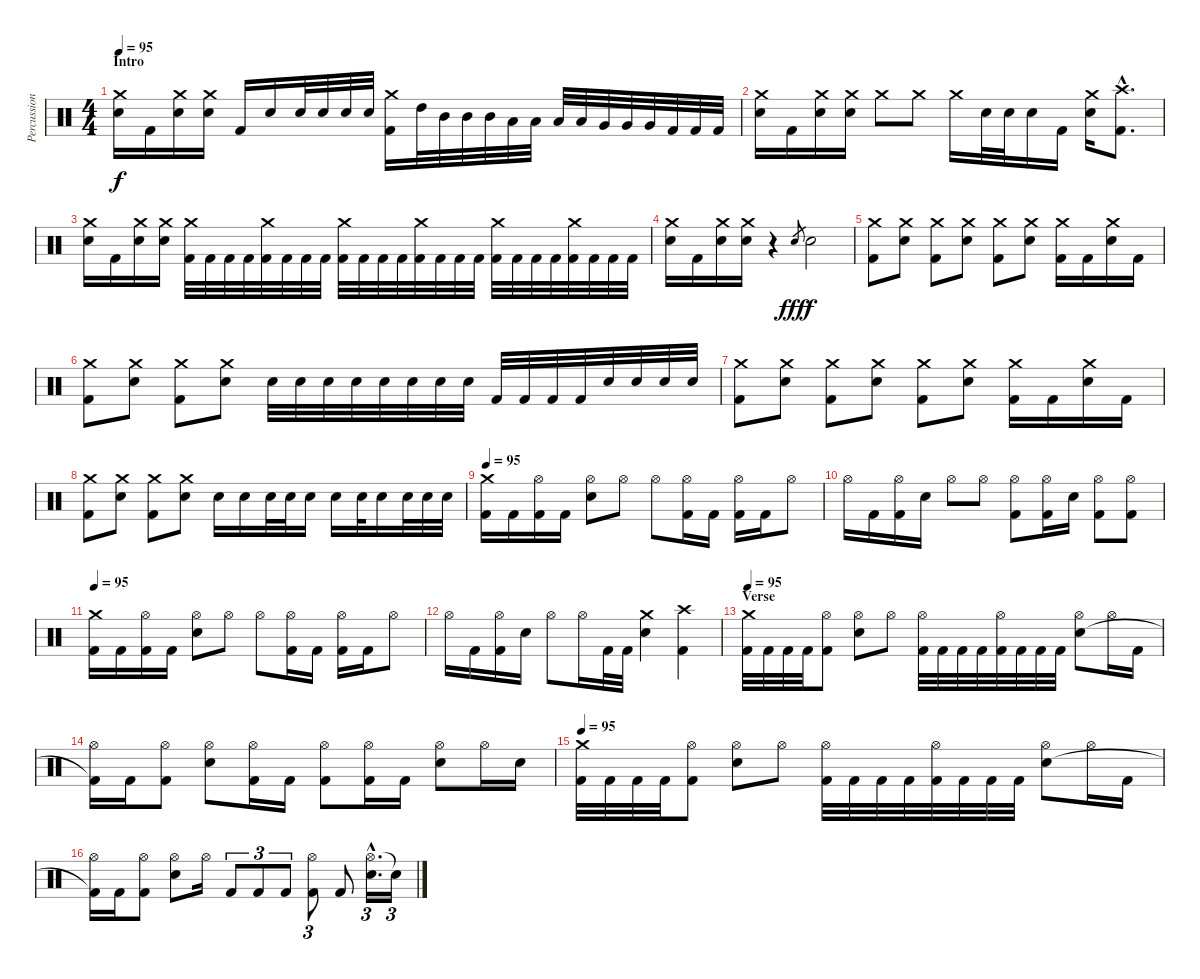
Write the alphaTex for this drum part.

\track ("Percussions" "Percussion") {instrument percussion}
\staff {score}
\articulation defaults
\ts (4 4)
\section ("" "Intro")
\tempo 95
\clef neutral
\ks c
("Crash medium (hit)" "Electric Snare (hit)").16{dy f} "Kick (hit) 2".16 ("Crash medium (hit)" "Electric Snare (hit)").16 ("Crash medium (hit)" "Electric Snare (hit)").16 "Kick (hit) 2".16 "Electric Snare (hit)".16 "Electric Snare (hit)".32 "Electric Snare (hit)".32 "Electric Snare (hit)".32 "Electric Snare (hit)".32 ("Crash medium (hit)" "Kick (hit) 2").16 "High Tom (hit)".32 "Mid Tom (hit)".32 "Mid Tom (hit)".32 "Mid Tom (hit)".32 "Low Tom (hit)".32 "Low Tom (hit)".32 "Low Tom (hit)".32 "Low Tom (hit)".32 "Very Low Tom (hit)".32 "Very Low Tom (hit)".32 "Very Low Tom (hit)".32 "Kick (hit) 2".32 "Kick (hit) 2".32 "Kick (hit) 2".32 |
("Crash medium (hit)" "Electric Snare (hit)").16 "Kick (hit) 2".16 ("Crash medium (hit)" "Electric Snare (hit)").16 ("Crash medium (hit)" "Electric Snare (hit)").16 "Crash medium (hit)".8 "Crash medium (hit)".8 "Crash medium (hit)".16 "Electric Snare (hit)".32 "Electric Snare (hit)".32 "Electric Snare (hit)".16 "Kick (hit) 2".16 ("Crash medium (hit)" "Electric Snare (hit)").16 ("Crash high (hit)"{hac} "Kick (hit) 2"{hac}).8{d} |
("Crash medium (hit)" "Electric Snare (hit)").16 "Kick (hit) 2".16 ("Crash medium (hit)" "Electric Snare (hit)").16 ("Crash medium (hit)" "Electric Snare (hit)").16 ("Crash medium (hit)" "Kick (hit) 2").32 "Kick (hit) 2".32 "Kick (hit) 2".32 "Kick (hit) 2".32 ("Crash medium (hit)" "Kick (hit) 2").32 "Kick (hit) 2".32 "Kick (hit) 2".32 "Kick (hit) 2".32 ("Crash medium (hit)" "Kick (hit) 2").32 "Kick (hit) 2".32 "Kick (hit) 2".32 "Kick (hit) 2".32 ("Crash medium (hit)" "Kick (hit) 2").32 "Kick (hit) 2".32 "Kick (hit) 2".32 "Kick (hit) 2".32 ("Crash medium (hit)" "Kick (hit) 2").32 "Kick (hit) 2".32 "Kick (hit) 2".32 "Kick (hit) 2".32 ("Crash medium (hit)" "Kick (hit) 2").32 "Kick (hit) 2".32 "Kick (hit) 2".32 "Kick (hit) 2".32 |
("Crash medium (hit)" "Electric Snare (hit)").16 "Kick (hit) 2".16 ("Crash medium (hit)" "Electric Snare (hit)").16 ("Crash medium (hit)" "Electric Snare (hit)").16 r.4 "Electric Snare (hit)".8{gr dy fff} "Electric Snare (hit)".2{dy f} |
("Crash medium (hit)" "Kick (hit) 2").8 ("Crash medium (hit)" "Electric Snare (hit)").8 ("Crash medium (hit)" "Kick (hit) 2").8 ("Crash medium (hit)" "Electric Snare (hit)").8 ("Crash medium (hit)" "Kick (hit) 2").8 ("Crash medium (hit)" "Electric Snare (hit)").8 ("Crash medium (hit)" "Kick (hit) 2").16 "Kick (hit) 2".16 ("Crash medium (hit)" "Electric Snare (hit)").16 "Kick (hit) 2".16 |
("Crash medium (hit)" "Kick (hit) 2").8 ("Crash medium (hit)" "Electric Snare (hit)").8 ("Crash medium (hit)" "Kick (hit) 2").8 ("Crash medium (hit)" "Electric Snare (hit)").8 "Electric Snare (hit)".32 "Electric Snare (hit)".32 "Electric Snare (hit)".32 "Electric Snare (hit)".32 "Electric Snare (hit)".32 "Electric Snare (hit)".32 "Electric Snare (hit)".32 "Electric Snare (hit)".32 "Kick (hit) 2".32 "Kick (hit) 2".32 "Kick (hit) 2".32 "Kick (hit) 2".32 "Electric Snare (hit)".32 "Electric Snare (hit)".32 "Electric Snare (hit)".32 "Electric Snare (hit)".32 |
("Crash medium (hit)" "Kick (hit) 2").8 ("Crash medium (hit)" "Electric Snare (hit)").8 ("Crash medium (hit)" "Kick (hit) 2").8 ("Crash medium (hit)" "Electric Snare (hit)").8 ("Crash medium (hit)" "Kick (hit) 2").8 ("Crash medium (hit)" "Electric Snare (hit)").8 ("Crash medium (hit)" "Kick (hit) 2").16 "Kick (hit) 2".16 ("Crash medium (hit)" "Electric Snare (hit)").16 "Kick (hit) 2".16 |
("Crash medium (hit)" "Kick (hit) 2").8 ("Crash medium (hit)" "Electric Snare (hit)").8 ("Crash medium (hit)" "Kick (hit) 2").8 ("Crash medium (hit)" "Electric Snare (hit)").8 "Electric Snare (hit)".16 "Electric Snare (hit)".16 "Electric Snare (hit)".32 "Electric Snare (hit)".32 "Electric Snare (hit)".16 "Electric Snare (hit)".16 "Electric Snare (hit)".32 "Electric Snare (hit)".16 "Electric Snare (hit)".32 "Electric Snare (hit)".32 "Electric Snare (hit)".32 |
\tempo 95
("Crash medium (hit)" "Kick (hit) 2").16 "Kick (hit) 2".16 ("Hi-Hat (open)" "Kick (hit) 2").16 "Kick (hit) 2".16 ("Hi-Hat (open)" "Electric Snare (hit)").8 "Hi-Hat (open)".8 "Hi-Hat (open)".8 ("Hi-Hat (open)" "Kick (hit) 2").16 "Kick (hit) 2".16 ("Hi-Hat (open)" "Kick (hit) 2").16 "Kick (hit) 2".16 "Hi-Hat (open)".8 |
"Hi-Hat (open)".16 "Kick (hit) 2".16 ("Hi-Hat (open)" "Kick (hit) 2").16 "Electric Snare (hit)".16 "Hi-Hat (open)".8 "Hi-Hat (open)".8 ("Hi-Hat (open)" "Kick (hit) 2").8 ("Hi-Hat (open)" "Kick (hit) 2").16 "Electric Snare (hit)".16 ("Hi-Hat (open)" "Kick (hit) 2").8 ("Hi-Hat (open)" "Kick (hit) 2").8 |
\tempo 95
("Crash medium (hit)" "Kick (hit) 2").16 "Kick (hit) 2".16 ("Hi-Hat (open)" "Kick (hit) 2").16 "Kick (hit) 2".16 ("Hi-Hat (open)" "Electric Snare (hit)").8 "Hi-Hat (open)".8 "Hi-Hat (open)".8 ("Hi-Hat (open)" "Kick (hit) 2").16 "Kick (hit) 2".16 ("Hi-Hat (open)" "Kick (hit) 2").16 "Kick (hit) 2".16 "Hi-Hat (open)".8 |
"Hi-Hat (open)".16 "Kick (hit) 2".16 ("Hi-Hat (open)" "Kick (hit) 2").16 "Electric Snare (hit)".16 "Hi-Hat (open)".8 "Hi-Hat (open)".16 "Kick (hit) 2".32 "Kick (hit) 2".32 ("Crash medium (hit)" "Electric Snare (hit)").4 ("Crash high (hit)" "Kick (hit) 2").4 |
\section ("" "Verse")
\tempo 95
("Crash medium (hit)" "Kick (hit) 2").32 "Kick (hit) 2".32 "Kick (hit) 2".32 "Kick (hit) 2".32 ("Hi-Hat (open)" "Kick (hit) 2").8 ("Hi-Hat (open)" "Electric Snare (hit)").8 "Hi-Hat (open)".8 ("Hi-Hat (open)" "Kick (hit) 2").32 "Kick (hit) 2".32 "Kick (hit) 2".32 "Kick (hit) 2".32 ("Hi-Hat (open)" "Kick (hit) 2").32 "Kick (hit) 2".32 "Kick (hit) 2".32 "Kick (hit) 2".32 ("Hi-Hat (open)" "Electric Snare (hit)").8 "Hi-Hat (open)".16 "Kick (hit) 2".16 |
("Hi-Hat (open)" "Kick (hit) 2"{t}).16 "Kick (hit) 2".16 ("Hi-Hat (open)" "Kick (hit) 2").8 ("Hi-Hat (open)" "Electric Snare (hit)").8 ("Hi-Hat (open)" "Kick (hit) 2").16 "Kick (hit) 2".16 ("Hi-Hat (open)" "Kick (hit) 2").8 ("Hi-Hat (open)" "Kick (hit) 2").16 "Kick (hit) 2".16 ("Hi-Hat (open)" "Electric Snare (hit)").8 "Hi-Hat (open)".16 "Electric Snare (hit)".16 |
\tempo 95
("Crash medium (hit)" "Kick (hit) 2").32 "Kick (hit) 2".32 "Kick (hit) 2".32 "Kick (hit) 2".32 ("Hi-Hat (open)" "Kick (hit) 2").8 ("Hi-Hat (open)" "Electric Snare (hit)").8 "Hi-Hat (open)".8 ("Hi-Hat (open)" "Kick (hit) 2").32 "Kick (hit) 2".32 "Kick (hit) 2".32 "Kick (hit) 2".32 ("Hi-Hat (open)" "Kick (hit) 2").32 "Kick (hit) 2".32 "Kick (hit) 2".32 "Kick (hit) 2".32 ("Hi-Hat (open)" "Electric Snare (hit)").8 "Hi-Hat (open)".16 "Kick (hit) 2".16 |
("Hi-Hat (open)" "Kick (hit) 2"{t}).16 "Kick (hit) 2".16 ("Hi-Hat (open)" "Kick (hit) 2").8 ("Hi-Hat (open)" "Electric Snare (hit)").8 "Hi-Hat (open)".16 "Kick (hit) 2".8{tu (3 2)} "Kick (hit) 2".8{tu (3 2)} "Kick (hit) 2".8{tu (3 2)} ("Hi-Hat (open)" "Kick (hit) 2").8{tu (3 2)} "Kick (hit) 2".8 ("Hi-Hat (open)"{hac} "Electric Snare (hit)"{hac}).16{d tu (3 2)} "Electric Snare (hit)"{t}.16{tu (3 2)}
